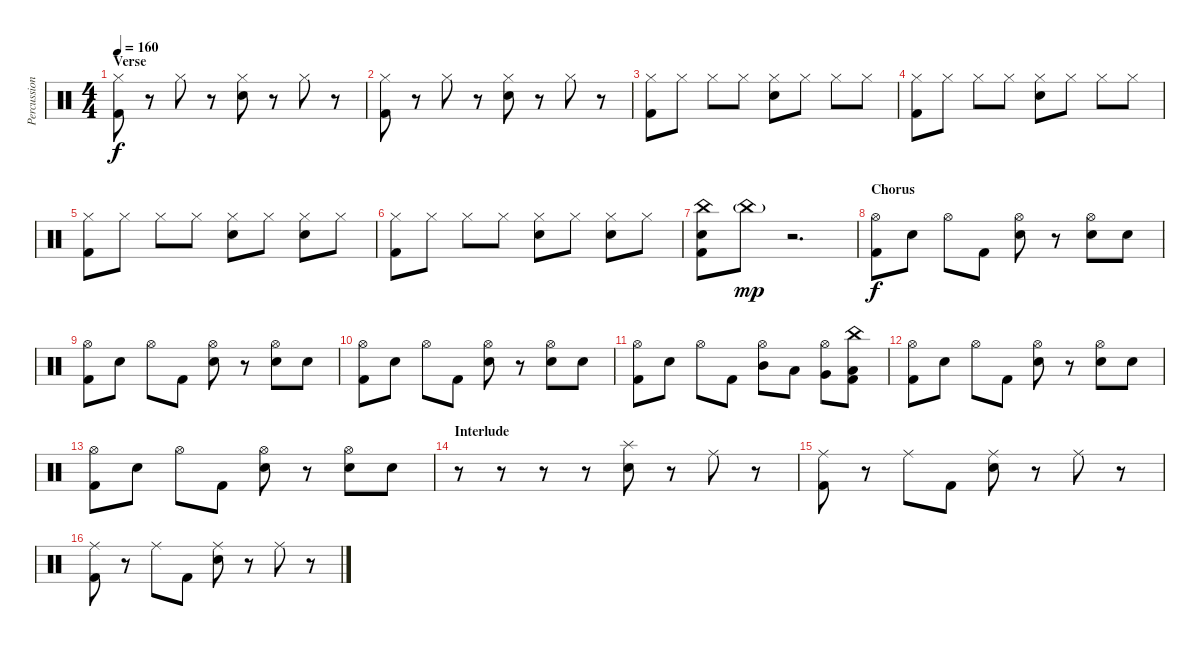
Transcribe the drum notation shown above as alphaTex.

\track ("Percussion" "Percussion") {instrument percussion}
\staff {score}
\articulation defaults
\ts (4 4)
\section ("" "Verse")
\tempo 160
\clef neutral
\ks c
("Hi-Hat (closed)" "Kick (hit) 2").8{dy f} r.8 "Hi-Hat (closed)".8 r.8 ("Hi-Hat (closed)" "Snare (hit) 2").8 r.8 "Hi-Hat (closed)".8 r.8 |
("Hi-Hat (closed)" "Kick (hit) 2").8 r.8 "Hi-Hat (closed)".8 r.8 ("Hi-Hat (closed)" "Snare (hit) 2").8 r.8 "Hi-Hat (closed)".8 r.8 |
("Hi-Hat (closed)" "Kick (hit) 2").8 "Hi-Hat (closed)".8 "Hi-Hat (closed)".8 "Hi-Hat (closed)".8 ("Hi-Hat (closed)" "Snare (hit) 2").8 "Hi-Hat (closed)".8 "Hi-Hat (closed)".8 "Hi-Hat (closed)".8 |
("Hi-Hat (closed)" "Kick (hit) 2").8 "Hi-Hat (closed)".8 "Hi-Hat (closed)".8 "Hi-Hat (closed)".8 ("Hi-Hat (closed)" "Snare (hit) 2").8 "Hi-Hat (closed)".8 "Hi-Hat (closed)".8 "Hi-Hat (closed)".8 |
("Hi-Hat (closed)" "Kick (hit) 2").8 "Hi-Hat (closed)".8 "Hi-Hat (closed)".8 "Hi-Hat (closed)".8 ("Hi-Hat (closed)" "Snare (hit) 2").8 "Hi-Hat (closed)".8 ("Hi-Hat (closed)" "Snare (hit) 2").8 "Hi-Hat (closed)".8 |
("Hi-Hat (closed)" "Kick (hit) 2").8 "Hi-Hat (closed)".8 "Hi-Hat (closed)".8 "Hi-Hat (closed)".8 ("Hi-Hat (closed)" "Snare (hit) 2").8 "Hi-Hat (closed)".8 ("Hi-Hat (closed)" "Snare (hit) 2").8 "Hi-Hat (closed)".8 |
("China (hit)" "Snare (hit) 2" "Kick (hit) 2").8 "China (hit)"{g}.8{dy mp} r.2{d} |
\section ("" "Chorus")
("Hi-Hat (open)" "Kick (hit) 2").8{dy f} "Snare (hit) 2".8 "Hi-Hat (open)".8 "Kick (hit) 2".8 ("Hi-Hat (open)" "Snare (hit) 2").8 r.8 ("Hi-Hat (open)" "Snare (hit) 2").8 "Snare (hit) 2".8 |
("Hi-Hat (open)" "Kick (hit) 2").8 "Snare (hit) 2".8 "Hi-Hat (open)".8 "Kick (hit) 2".8 ("Hi-Hat (open)" "Snare (hit) 2").8 r.8 ("Hi-Hat (open)" "Snare (hit) 2").8 "Snare (hit) 2".8 |
("Hi-Hat (open)" "Kick (hit) 2").8 "Snare (hit) 2".8 "Hi-Hat (open)".8 "Kick (hit) 2".8 ("Hi-Hat (open)" "Snare (hit) 2").8 r.8 ("Hi-Hat (open)" "Snare (hit) 2").8 "Snare (hit) 2".8 |
("Hi-Hat (open)" "Kick (hit) 2").8 "Snare (hit) 2".8 "Hi-Hat (open)".8 "Kick (hit) 2".8 ("Hi-Hat (open)" "Mid Tom (hit)").8 "Low Tom (hit)".8 ("Hi-Hat (open)" "Very Low Tom (hit)").8 ("China (hit)" "Low Floor Tom (hit)" "Kick (hit) 2").8 |
("Hi-Hat (open)" "Kick (hit) 2").8 "Snare (hit) 2".8 "Hi-Hat (open)".8 "Kick (hit) 2".8 ("Hi-Hat (open)" "Snare (hit) 2").8 r.8 ("Hi-Hat (open)" "Snare (hit) 2").8 "Snare (hit) 2".8 |
("Hi-Hat (open)" "Kick (hit) 2").8 "Snare (hit) 2".8 "Hi-Hat (open)".8 "Kick (hit) 2".8 ("Hi-Hat (open)" "Snare (hit) 2").8 r.8 ("Hi-Hat (open)" "Snare (hit) 2").8 "Snare (hit) 2".8 |
\section ("" "Interlude")
r.8 r.8 r.8 r.8 ("Splash (hit)" "Snare (hit) 2").8 r.8 "Ride (middle)".8 r.8 |
("Ride (middle)" "Kick (hit) 2").8 r.8 "Ride (middle)".8 "Kick (hit) 2".8 ("Ride (middle)" "Snare (hit) 2").8 r.8 "Ride (middle)".8 r.8 |
("Ride (middle)" "Kick (hit) 2").8 r.8 "Ride (middle)".8 "Kick (hit) 2".8 ("Ride (middle)" "Snare (hit) 2").8 r.8 "Ride (middle)".8 r.8
